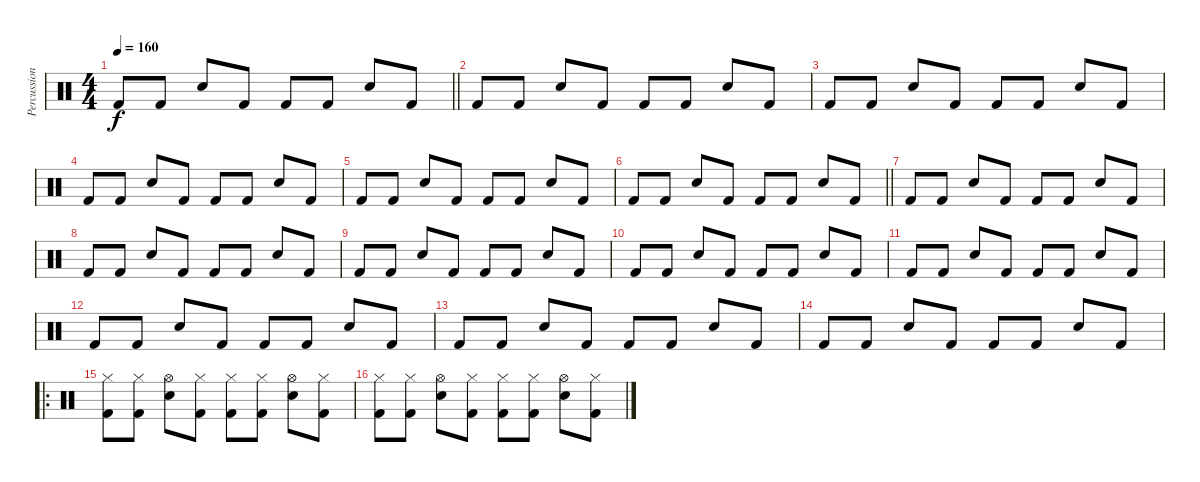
\track ("Percussion" "Percussion") {instrument percussion}
\staff {score}
\articulation defaults
\ts (4 4)
\tempo 160
\clef neutral
\barLineRight lightlight
\ks c "Kick (hit) 2".8{dy f} "Kick (hit) 2".8 "Snare (hit) 2".8 "Kick (hit) 2".8 "Kick (hit) 2".8 "Kick (hit) 2".8 "Snare (hit) 2".8 "Kick (hit) 2".8
|
"Kick (hit) 2".8 "Kick (hit) 2".8 "Snare (hit) 2".8 "Kick (hit) 2".8 "Kick (hit) 2".8 "Kick (hit) 2".8 "Snare (hit) 2".8 "Kick (hit) 2".8 |
"Kick (hit) 2".8 "Kick (hit) 2".8 "Snare (hit) 2".8 "Kick (hit) 2".8 "Kick (hit) 2".8 "Kick (hit) 2".8 "Snare (hit) 2".8 "Kick (hit) 2".8 |
"Kick (hit) 2".8 "Kick (hit) 2".8 "Snare (hit) 2".8 "Kick (hit) 2".8 "Kick (hit) 2".8 "Kick (hit) 2".8 "Snare (hit) 2".8 "Kick (hit) 2".8 |
"Kick (hit) 2".8 "Kick (hit) 2".8 "Snare (hit) 2".8 "Kick (hit) 2".8 "Kick (hit) 2".8 "Kick (hit) 2".8 "Snare (hit) 2".8 "Kick (hit) 2".8 |
\barLineRight lightlight "Kick (hit) 2".8 "Kick (hit) 2".8 "Snare (hit) 2".8 "Kick (hit) 2".8 "Kick (hit) 2".8 "Kick (hit) 2".8 "Snare (hit) 2".8 "Kick (hit) 2".8
|
"Kick (hit) 2".8 "Kick (hit) 2".8 "Snare (hit) 2".8 "Kick (hit) 2".8 "Kick (hit) 2".8 "Kick (hit) 2".8 "Snare (hit) 2".8 "Kick (hit) 2".8 |
"Kick (hit) 2".8 "Kick (hit) 2".8 "Snare (hit) 2".8 "Kick (hit) 2".8 "Kick (hit) 2".8 "Kick (hit) 2".8 "Snare (hit) 2".8 "Kick (hit) 2".8 |
"Kick (hit) 2".8 "Kick (hit) 2".8 "Snare (hit) 2".8 "Kick (hit) 2".8 "Kick (hit) 2".8 "Kick (hit) 2".8 "Snare (hit) 2".8 "Kick (hit) 2".8 |
"Kick (hit) 2".8 "Kick (hit) 2".8 "Snare (hit) 2".8 "Kick (hit) 2".8 "Kick (hit) 2".8 "Kick (hit) 2".8 "Snare (hit) 2".8 "Kick (hit) 2".8 |
"Kick (hit) 2".8 "Kick (hit) 2".8 "Snare (hit) 2".8 "Kick (hit) 2".8 "Kick (hit) 2".8 "Kick (hit) 2".8 "Snare (hit) 2".8 "Kick (hit) 2".8 |
"Kick (hit) 2".8 "Kick (hit) 2".8 "Snare (hit) 2".8 "Kick (hit) 2".8 "Kick (hit) 2".8 "Kick (hit) 2".8 "Snare (hit) 2".8 "Kick (hit) 2".8 |
"Kick (hit) 2".8 "Kick (hit) 2".8 "Snare (hit) 2".8 "Kick (hit) 2".8 "Kick (hit) 2".8 "Kick (hit) 2".8 "Snare (hit) 2".8 "Kick (hit) 2".8 |
"Kick (hit) 2".8 "Kick (hit) 2".8 "Snare (hit) 2".8 "Kick (hit) 2".8 "Kick (hit) 2".8 "Kick (hit) 2".8 "Snare (hit) 2".8 "Kick (hit) 2".8 |
\ro
("Hi-Hat (closed)" "Kick (hit) 2").8 ("Hi-Hat (closed)" "Kick (hit) 2").8 ("Hi-Hat (open)" "Snare (hit) 2").8 ("Hi-Hat (closed)" "Kick (hit) 2").8 ("Hi-Hat (closed)" "Kick (hit) 2").8 ("Hi-Hat (closed)" "Kick (hit) 2").8 ("Hi-Hat (open)" "Snare (hit) 2").8 ("Hi-Hat (closed)" "Kick (hit) 2").8 |
("Hi-Hat (closed)" "Kick (hit) 2").8 ("Hi-Hat (closed)" "Kick (hit) 2").8 ("Hi-Hat (open)" "Snare (hit) 2").8 ("Hi-Hat (closed)" "Kick (hit) 2").8 ("Hi-Hat (closed)" "Kick (hit) 2").8 ("Hi-Hat (closed)" "Kick (hit) 2").8 ("Hi-Hat (open)" "Snare (hit) 2").8 ("Hi-Hat (closed)" "Kick (hit) 2").8
